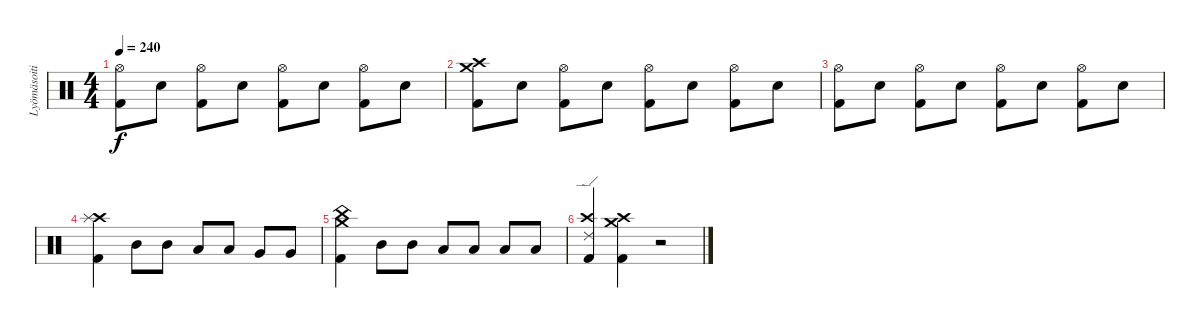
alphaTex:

\track ("Lyömäsoitin" "Lyömäsoiti") {instrument percussion}
\staff {score}
\articulation defaults
\ts (4 4)
\tempo 240
\clef neutral
\ks c
("Hi-Hat (open)" "Kick (hit) 2").8{dy f} "Snare (hit) 2".8 ("Hi-Hat (open)" "Kick (hit) 2").8 "Snare (hit) 2".8 ("Hi-Hat (open)" "Kick (hit) 2").8 "Snare (hit) 2".8 ("Hi-Hat (open)" "Kick (hit) 2").8 "Snare (hit) 2".8 |
("Crash high (hit)" "Crash medium (hit)" "Kick (hit) 2").8 "Snare (hit) 2".8 ("Hi-Hat (open)" "Kick (hit) 2").8 "Snare (hit) 2".8 ("Hi-Hat (open)" "Kick (hit) 2").8 "Snare (hit) 2".8 ("Hi-Hat (open)" "Kick (hit) 2").8 "Snare (hit) 2".8 |
("Hi-Hat (open)" "Kick (hit) 2").8 "Snare (hit) 2".8 ("Hi-Hat (open)" "Kick (hit) 2").8 "Snare (hit) 2".8 ("Hi-Hat (open)" "Kick (hit) 2").8 "Snare (hit) 2".8 ("Hi-Hat (open)" "Kick (hit) 2").8 "Snare (hit) 2".8 |
("Crash high (hit)" "Splash (hit)" "Kick (hit) 2").4 "Mid Tom (hit)".8 "Mid Tom (hit)".8 "Low Tom (hit)".8 "Low Tom (hit)".8 "Very Low Tom (hit)".8 "Very Low Tom (hit)".8 |
("Crash medium (hit)" "China (hit)" "Kick (hit) 2").4 "Mid Tom (hit)".8 "Mid Tom (hit)".8 "Low Tom (hit)".8 "Low Tom (hit)".8 "Low Floor Tom (hit)".8 "Low Floor Tom (hit)".8 |
("Crash high (hit)" "Ride (edge) 2" "Kick (hit) 2").4 ("Crash high (hit)" "Crash medium (hit)" "Kick (hit) 2").4 r.2
